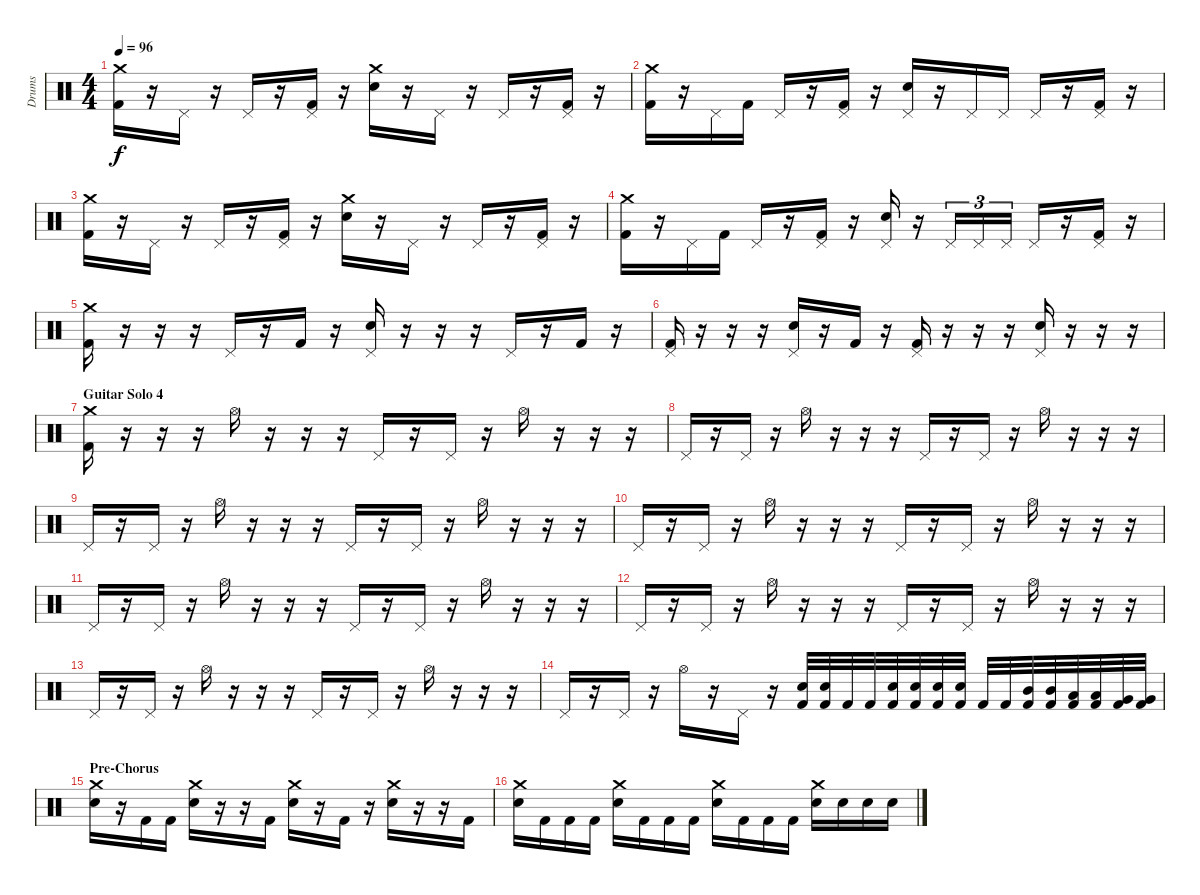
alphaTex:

\track ("Drums" "Drums") {instrument percussion}
\staff {score}
\articulation defaults
\ts (4 4)
\tempo 96
\clef neutral
\ks c
("Crash medium (hit)" "Kick (hit) 2").16{dy f} r.16 "Pedal Hi-Hat (hit)".16 r.16 "Pedal Hi-Hat (hit)".16 r.16 ("Pedal Hi-Hat (hit)" "Kick (hit) 2").16 r.16 ("Crash medium (hit)" "Electric Snare (hit)").16 r.16 "Pedal Hi-Hat (hit)".16 r.16 "Pedal Hi-Hat (hit)".16 r.16 ("Pedal Hi-Hat (hit)" "Kick (hit) 2").16 r.16 |
("Crash medium (hit)" "Kick (hit) 2").16 r.16 "Pedal Hi-Hat (hit)".16 "Kick (hit) 2".16 "Pedal Hi-Hat (hit)".16 r.16 ("Pedal Hi-Hat (hit)" "Kick (hit) 2").16 r.16 ("Pedal Hi-Hat (hit)" "Electric Snare (hit)").16 r.16 "Pedal Hi-Hat (hit)".16 "Pedal Hi-Hat (hit)".16 "Pedal Hi-Hat (hit)".16 r.16 ("Pedal Hi-Hat (hit)" "Kick (hit) 2").16 r.16 |
("Crash medium (hit)" "Kick (hit) 2").16 r.16 "Pedal Hi-Hat (hit)".16 r.16 "Pedal Hi-Hat (hit)".16 r.16 ("Pedal Hi-Hat (hit)" "Kick (hit) 2").16 r.16 ("Crash medium (hit)" "Electric Snare (hit)").16 r.16 "Pedal Hi-Hat (hit)".16 r.16 "Pedal Hi-Hat (hit)".16 r.16 ("Pedal Hi-Hat (hit)" "Kick (hit) 2").16 r.16 |
("Crash medium (hit)" "Kick (hit) 2").16 r.16 "Pedal Hi-Hat (hit)".16 "Kick (hit) 2".16 "Pedal Hi-Hat (hit)".16 r.16 ("Pedal Hi-Hat (hit)" "Kick (hit) 2").16 r.16 ("Pedal Hi-Hat (hit)" "Electric Snare (hit)").16 r.16 "Pedal Hi-Hat (hit)".16{tu (3 2)} "Pedal Hi-Hat (hit)".16{tu (3 2)} "Pedal Hi-Hat (hit)".16{tu (3 2)} "Pedal Hi-Hat (hit)".16 r.16 ("Pedal Hi-Hat (hit)" "Kick (hit) 2").16 r.16 |
\section ("" "")
("Crash medium (hit)" "Kick (hit) 2").16 r.16 r.16 r.16 "Pedal Hi-Hat (hit)".16 r.16 "Kick (hit) 2".16 r.16 ("Pedal Hi-Hat (hit)" "Electric Snare (hit)").16 r.16 r.16 r.16 "Pedal Hi-Hat (hit)".16 r.16 "Kick (hit) 2".16 r.16 |
("Pedal Hi-Hat (hit)" "Kick (hit) 2").16 r.16 r.16 r.16 ("Pedal Hi-Hat (hit)" "Electric Snare (hit)").16 r.16 "Kick (hit) 2".16 r.16 ("Pedal Hi-Hat (hit)" "Kick (hit) 2").16 r.16 r.16 r.16 ("Pedal Hi-Hat (hit)" "Electric Snare (hit)").16 r.16 r.16 r.16 |
\section ("" "Guitar Solo 4")
("Crash medium (hit)" "Kick (hit) 2").16 r.16 r.16 r.16 "Hi-Hat (open)".16 r.16 r.16 r.16 "Pedal Hi-Hat (hit)".16 r.16 "Pedal Hi-Hat (hit)".16 r.16 "Hi-Hat (open)".16 r.16 r.16 r.16 |
"Pedal Hi-Hat (hit)".16 r.16 "Pedal Hi-Hat (hit)".16 r.16 "Hi-Hat (open)".16 r.16 r.16 r.16 "Pedal Hi-Hat (hit)".16 r.16 "Pedal Hi-Hat (hit)".16 r.16 "Hi-Hat (open)".16 r.16 r.16 r.16 |
"Pedal Hi-Hat (hit)".16 r.16 "Pedal Hi-Hat (hit)".16 r.16 "Hi-Hat (open)".16 r.16 r.16 r.16 "Pedal Hi-Hat (hit)".16 r.16 "Pedal Hi-Hat (hit)".16 r.16 "Hi-Hat (open)".16 r.16 r.16 r.16 |
"Pedal Hi-Hat (hit)".16 r.16 "Pedal Hi-Hat (hit)".16 r.16 "Hi-Hat (open)".16 r.16 r.16 r.16 "Pedal Hi-Hat (hit)".16 r.16 "Pedal Hi-Hat (hit)".16 r.16 "Hi-Hat (open)".16 r.16 r.16 r.16 |
\section ("" "")
"Pedal Hi-Hat (hit)".16 r.16 "Pedal Hi-Hat (hit)".16 r.16 "Hi-Hat (open)".16 r.16 r.16 r.16 "Pedal Hi-Hat (hit)".16 r.16 "Pedal Hi-Hat (hit)".16 r.16 "Hi-Hat (open)".16 r.16 r.16 r.16 |
"Pedal Hi-Hat (hit)".16 r.16 "Pedal Hi-Hat (hit)".16 r.16 "Hi-Hat (open)".16 r.16 r.16 r.16 "Pedal Hi-Hat (hit)".16 r.16 "Pedal Hi-Hat (hit)".16 r.16 "Hi-Hat (open)".16 r.16 r.16 r.16 |
"Pedal Hi-Hat (hit)".16 r.16 "Pedal Hi-Hat (hit)".16 r.16 "Hi-Hat (open)".16 r.16 r.16 r.16 "Pedal Hi-Hat (hit)".16 r.16 "Pedal Hi-Hat (hit)".16 r.16 "Hi-Hat (open)".16 r.16 r.16 r.16 |
"Pedal Hi-Hat (hit)".16 r.16 "Pedal Hi-Hat (hit)".16 r.16 "Hi-Hat (open)".16 r.16 "Pedal Hi-Hat (hit)".16 r.16 ("Electric Snare (hit)" "Kick (hit) 2").32 ("Electric Snare (hit)" "Kick (hit) 2").32 "Kick (hit) 2".32 "Kick (hit) 2".32 ("Electric Snare (hit)" "Kick (hit) 2").32 ("Electric Snare (hit)" "Kick (hit) 2").32 ("Electric Snare (hit)" "Kick (hit) 2").32 ("Electric Snare (hit)" "Kick (hit) 2").32 "Kick (hit) 2".32 "Kick (hit) 2".32 ("Mid Tom (hit)" "Kick (hit) 2").32 ("Mid Tom (hit)" "Kick (hit) 2").32 ("Low Tom (hit)" "Kick (hit) 2").32 ("Low Tom (hit)" "Kick (hit) 2").32 ("Very Low Tom (hit)" "Kick (hit) 2").32 ("Very Low Tom (hit)" "Kick (hit) 2").32 |
\section ("" "Pre-Chorus")
("Crash medium (hit)" "Electric Snare (hit)").16 r.16 "Kick (hit) 2".16 "Kick (hit) 2".16 ("Crash medium (hit)" "Electric Snare (hit)").16 r.16 r.16 "Kick (hit) 2".16 ("Crash medium (hit)" "Electric Snare (hit)").16 r.16 "Kick (hit) 2".16 r.16 ("Crash medium (hit)" "Electric Snare (hit)").16 r.16 r.16 "Kick (hit) 2".16 |
("Crash medium (hit)" "Electric Snare (hit)").16 "Kick (hit) 2".16 "Kick (hit) 2".16 "Kick (hit) 2".16 ("Crash medium (hit)" "Electric Snare (hit)").16 "Kick (hit) 2".16 "Kick (hit) 2".16 "Kick (hit) 2".16 ("Crash medium (hit)" "Electric Snare (hit)").16 "Kick (hit) 2".16 "Kick (hit) 2".16 "Kick (hit) 2".16 ("Crash medium (hit)" "Electric Snare (hit)").16 "Electric Snare (hit)".16 "Electric Snare (hit)".16 "Electric Snare (hit)".16
